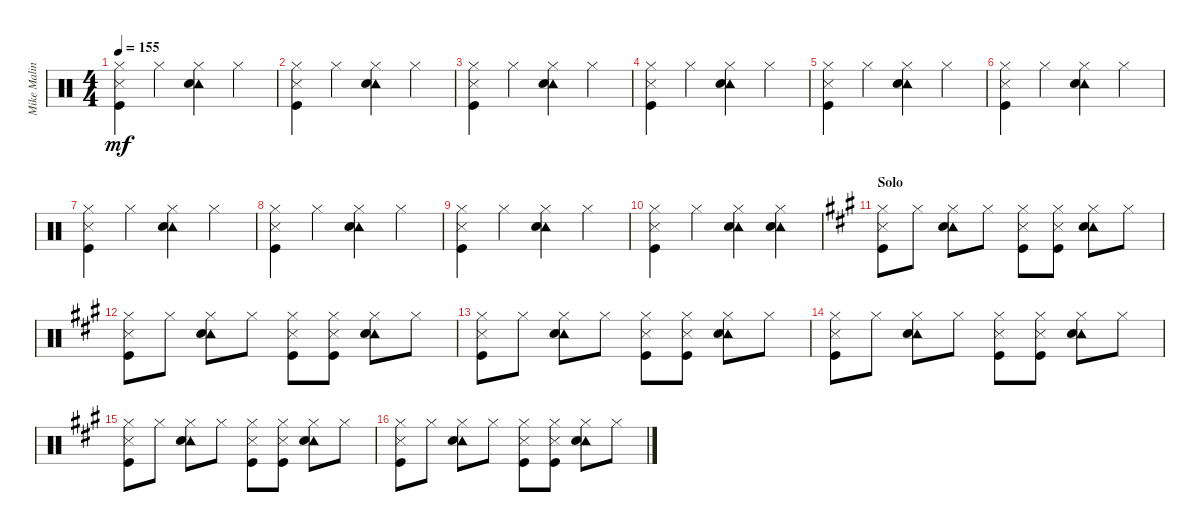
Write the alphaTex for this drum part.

\track ("Mike Malinin - Drums" "Mike Malin") {instrument percussion}
\staff {score}
\articulation defaults
\ts (4 4)
\tempo 155
\clef neutral
\ks c
("Hi-Hat (closed)" "Metronome (hit)" "Kick (hit)").4{dy mf} "Hi-Hat (closed)".4 ("Tambourine (hit)" "Hi-Hat (closed)" "Electric Snare (hit)").4 "Hi-Hat (closed)".4 |
("Hi-Hat (closed)" "Metronome (hit)" "Kick (hit)").4 "Hi-Hat (closed)".4 ("Tambourine (hit)" "Hi-Hat (closed)" "Electric Snare (hit)").4 "Hi-Hat (closed)".4 |
("Hi-Hat (closed)" "Metronome (hit)" "Kick (hit)").4 "Hi-Hat (closed)".4 ("Tambourine (hit)" "Hi-Hat (closed)" "Electric Snare (hit)").4 "Hi-Hat (closed)".4 |
("Hi-Hat (closed)" "Metronome (hit)" "Kick (hit)").4 "Hi-Hat (closed)".4 ("Tambourine (hit)" "Hi-Hat (closed)" "Electric Snare (hit)").4 "Hi-Hat (closed)".4 |
("Hi-Hat (closed)" "Metronome (hit)" "Kick (hit)").4 "Hi-Hat (closed)".4 ("Tambourine (hit)" "Hi-Hat (closed)" "Electric Snare (hit)").4 "Hi-Hat (closed)".4 |
("Hi-Hat (closed)" "Metronome (hit)" "Kick (hit)").4 "Hi-Hat (closed)".4 ("Tambourine (hit)" "Hi-Hat (closed)" "Electric Snare (hit)").4 "Hi-Hat (closed)".4 |
("Hi-Hat (closed)" "Metronome (hit)" "Kick (hit)").4 "Hi-Hat (closed)".4 ("Tambourine (hit)" "Hi-Hat (closed)" "Electric Snare (hit)").4 "Hi-Hat (closed)".4 |
("Hi-Hat (closed)" "Metronome (hit)" "Kick (hit)").4 "Hi-Hat (closed)".4 ("Tambourine (hit)" "Hi-Hat (closed)" "Electric Snare (hit)").4 "Hi-Hat (closed)".4 |
("Hi-Hat (closed)" "Metronome (hit)" "Kick (hit)").4 "Hi-Hat (closed)".4 ("Tambourine (hit)" "Hi-Hat (closed)" "Electric Snare (hit)").4 "Hi-Hat (closed)".4 |
("Hi-Hat (closed)" "Metronome (hit)" "Kick (hit)").4 "Hi-Hat (closed)".4 ("Tambourine (hit)" "Hi-Hat (closed)" "Electric Snare (hit)").4 ("Tambourine (hit)" "Hi-Hat (closed)" "Electric Snare (hit)").4 |
\section ("" "Solo")
\ks a
("Hi-Hat (closed)" "Metronome (hit)" "Kick (hit)").8 "Hi-Hat (closed)".8 ("Tambourine (hit)" "Hi-Hat (closed)" "Electric Snare (hit)").8 "Hi-Hat (closed)".8 ("Hi-Hat (closed)" "Metronome (hit)" "Kick (hit)").8 ("Hi-Hat (closed)" "Metronome (hit)" "Kick (hit)").8 ("Tambourine (hit)" "Hi-Hat (closed)" "Electric Snare (hit)").8 "Hi-Hat (closed)".8 |
("Hi-Hat (closed)" "Metronome (hit)" "Kick (hit)").8 "Hi-Hat (closed)".8 ("Tambourine (hit)" "Hi-Hat (closed)" "Electric Snare (hit)").8 "Hi-Hat (closed)".8 ("Hi-Hat (closed)" "Metronome (hit)" "Kick (hit)").8 ("Hi-Hat (closed)" "Metronome (hit)" "Kick (hit)").8 ("Tambourine (hit)" "Hi-Hat (closed)" "Electric Snare (hit)").8 "Hi-Hat (closed)".8 |
("Hi-Hat (closed)" "Metronome (hit)" "Kick (hit)").8 "Hi-Hat (closed)".8 ("Tambourine (hit)" "Hi-Hat (closed)" "Electric Snare (hit)").8 "Hi-Hat (closed)".8 ("Hi-Hat (closed)" "Metronome (hit)" "Kick (hit)").8 ("Hi-Hat (closed)" "Metronome (hit)" "Kick (hit)").8 ("Tambourine (hit)" "Hi-Hat (closed)" "Electric Snare (hit)").8 "Hi-Hat (closed)".8 |
("Hi-Hat (closed)" "Metronome (hit)" "Kick (hit)").8 "Hi-Hat (closed)".8 ("Tambourine (hit)" "Hi-Hat (closed)" "Electric Snare (hit)").8 "Hi-Hat (closed)".8 ("Hi-Hat (closed)" "Metronome (hit)" "Kick (hit)").8 ("Hi-Hat (closed)" "Metronome (hit)" "Kick (hit)").8 ("Tambourine (hit)" "Hi-Hat (closed)" "Electric Snare (hit)").8 "Hi-Hat (closed)".8 |
("Hi-Hat (closed)" "Metronome (hit)" "Kick (hit)").8 "Hi-Hat (closed)".8 ("Tambourine (hit)" "Hi-Hat (closed)" "Electric Snare (hit)").8 "Hi-Hat (closed)".8 ("Hi-Hat (closed)" "Metronome (hit)" "Kick (hit)").8 ("Hi-Hat (closed)" "Metronome (hit)" "Kick (hit)").8 ("Tambourine (hit)" "Hi-Hat (closed)" "Electric Snare (hit)").8 "Hi-Hat (closed)".8 |
("Hi-Hat (closed)" "Metronome (hit)" "Kick (hit)").8 "Hi-Hat (closed)".8 ("Tambourine (hit)" "Hi-Hat (closed)" "Electric Snare (hit)").8 "Hi-Hat (closed)".8 ("Hi-Hat (closed)" "Metronome (hit)" "Kick (hit)").8 ("Hi-Hat (closed)" "Metronome (hit)" "Kick (hit)").8 ("Tambourine (hit)" "Hi-Hat (closed)" "Electric Snare (hit)").8 "Hi-Hat (closed)".8
